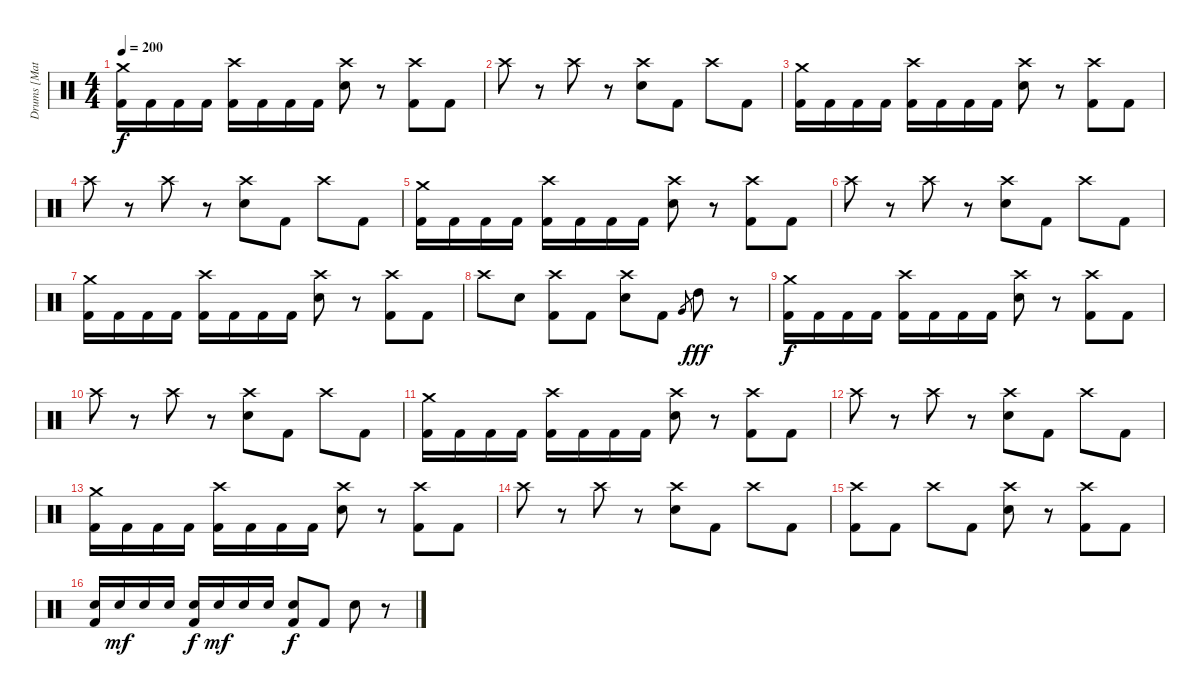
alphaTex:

\track ("Drums [Matt]" "Drums [Mat") {instrument percussion}
\staff {score}
\articulation defaults
\ts (4 4)
\tempo 200
\clef neutral
\ks c
("Crash medium (hit)" "Kick (hit) 2").16{dy f} "Kick (hit) 2".16 "Kick (hit) 2".16 "Kick (hit) 2".16 ("Crash high (hit)" "Kick (hit) 2").16 "Kick (hit) 2".16 "Kick (hit) 2".16 "Kick (hit) 2".16 ("Crash high (hit)" "Electric Snare (hit)").8 r.8 ("Crash high (hit)" "Kick (hit) 2").8 "Kick (hit) 2".8 |
"Crash high (hit)".8 r.8 "Crash high (hit)".8 r.8 ("Crash high (hit)" "Electric Snare (hit)").8 "Kick (hit) 2".8 "Crash high (hit)".8 "Kick (hit) 2".8 |
("Crash medium (hit)" "Kick (hit) 2").16 "Kick (hit) 2".16 "Kick (hit) 2".16 "Kick (hit) 2".16 ("Crash high (hit)" "Kick (hit) 2").16 "Kick (hit) 2".16 "Kick (hit) 2".16 "Kick (hit) 2".16 ("Crash high (hit)" "Electric Snare (hit)").8 r.8 ("Crash high (hit)" "Kick (hit) 2").8 "Kick (hit) 2".8 |
"Crash high (hit)".8 r.8 "Crash high (hit)".8 r.8 ("Crash high (hit)" "Electric Snare (hit)").8 "Kick (hit) 2".8 "Crash high (hit)".8 "Kick (hit) 2".8 |
("Crash medium (hit)" "Kick (hit) 2").16 "Kick (hit) 2".16 "Kick (hit) 2".16 "Kick (hit) 2".16 ("Crash high (hit)" "Kick (hit) 2").16 "Kick (hit) 2".16 "Kick (hit) 2".16 "Kick (hit) 2".16 ("Crash high (hit)" "Electric Snare (hit)").8 r.8 ("Crash high (hit)" "Kick (hit) 2").8 "Kick (hit) 2".8 |
"Crash high (hit)".8 r.8 "Crash high (hit)".8 r.8 ("Crash high (hit)" "Electric Snare (hit)").8 "Kick (hit) 2".8 "Crash high (hit)".8 "Kick (hit) 2".8 |
("Crash medium (hit)" "Kick (hit) 2").16 "Kick (hit) 2".16 "Kick (hit) 2".16 "Kick (hit) 2".16 ("Crash high (hit)" "Kick (hit) 2").16 "Kick (hit) 2".16 "Kick (hit) 2".16 "Kick (hit) 2".16 ("Crash high (hit)" "Electric Snare (hit)").8 r.8 ("Crash high (hit)" "Kick (hit) 2").8 "Kick (hit) 2".8 |
"Crash high (hit)".8 "Electric Snare (hit)".8 ("Crash high (hit)" "Kick (hit) 2").8 "Kick (hit) 2".8 ("Crash high (hit)" "Electric Snare (hit)").8 "Kick (hit) 2".8 "Very Low Tom (hit)".8{gr} "High Tom (hit)".8{dy fff} r.8 |
("Crash medium (hit)" "Kick (hit) 2").16{dy f} "Kick (hit) 2".16 "Kick (hit) 2".16 "Kick (hit) 2".16 ("Crash high (hit)" "Kick (hit) 2").16 "Kick (hit) 2".16 "Kick (hit) 2".16 "Kick (hit) 2".16 ("Crash high (hit)" "Electric Snare (hit)").8 r.8 ("Crash high (hit)" "Kick (hit) 2").8 "Kick (hit) 2".8 |
"Crash high (hit)".8 r.8 "Crash high (hit)".8 r.8 ("Crash high (hit)" "Electric Snare (hit)").8 "Kick (hit) 2".8 "Crash high (hit)".8 "Kick (hit) 2".8 |
("Crash medium (hit)" "Kick (hit) 2").16 "Kick (hit) 2".16 "Kick (hit) 2".16 "Kick (hit) 2".16 ("Crash high (hit)" "Kick (hit) 2").16 "Kick (hit) 2".16 "Kick (hit) 2".16 "Kick (hit) 2".16 ("Crash high (hit)" "Electric Snare (hit)").8 r.8 ("Crash high (hit)" "Kick (hit) 2").8 "Kick (hit) 2".8 |
"Crash high (hit)".8 r.8 "Crash high (hit)".8 r.8 ("Crash high (hit)" "Electric Snare (hit)").8 "Kick (hit) 2".8 "Crash high (hit)".8 "Kick (hit) 2".8 |
("Crash medium (hit)" "Kick (hit) 2").16 "Kick (hit) 2".16 "Kick (hit) 2".16 "Kick (hit) 2".16 ("Crash high (hit)" "Kick (hit) 2").16 "Kick (hit) 2".16 "Kick (hit) 2".16 "Kick (hit) 2".16 ("Crash high (hit)" "Electric Snare (hit)").8 r.8 ("Crash high (hit)" "Kick (hit) 2").8 "Kick (hit) 2".8 |
"Crash high (hit)".8 r.8 "Crash high (hit)".8 r.8 ("Crash high (hit)" "Electric Snare (hit)").8 "Kick (hit) 2".8 "Crash high (hit)".8 "Kick (hit) 2".8 |
("Crash high (hit)" "Kick (hit) 2").8 "Kick (hit) 2".8 "Crash high (hit)".8 "Kick (hit) 2".8 ("Crash high (hit)" "Electric Snare (hit)").8 r.8 ("Crash high (hit)" "Kick (hit) 2").8 "Kick (hit) 2".8 |
("Electric Snare (hit)" "Kick (hit) 2").16 "Electric Snare (hit)".16{dy mf} "Electric Snare (hit)".16 "Electric Snare (hit)".16 ("Electric Snare (hit)" "Kick (hit) 2").16{dy f} "Electric Snare (hit)".16{dy mf} "Electric Snare (hit)".16 "Electric Snare (hit)".16 ("Electric Snare (hit)" "Kick (hit) 2").8{dy f} "Kick (hit) 2".8 "Electric Snare (hit)".8 r.8
